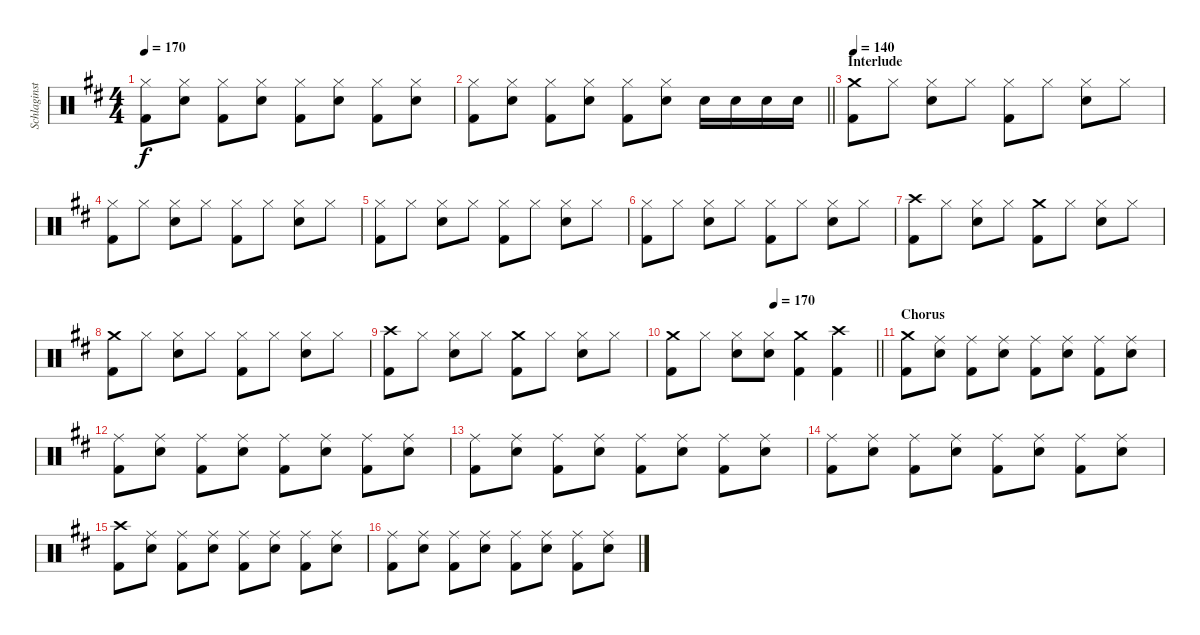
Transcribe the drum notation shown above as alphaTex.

\track ("Schlaginstrumente - Auswahl" "Schlaginst") {instrument percussion}
\staff {score}
\articulation defaults
\ts (4 4)
\tempo 170
\clef neutral
\ks d
("Hi-Hat (closed)" "Kick (hit) 2").8{dy f} ("Hi-Hat (closed)" "Snare (hit) 2").8 ("Hi-Hat (closed)" "Kick (hit) 2").8 ("Hi-Hat (closed)" "Snare (hit) 2").8 ("Hi-Hat (closed)" "Kick (hit) 2").8 ("Hi-Hat (closed)" "Snare (hit) 2").8 ("Hi-Hat (closed)" "Kick (hit) 2").8 ("Hi-Hat (closed)" "Snare (hit) 2").8 |
\barLineRight lightlight
("Hi-Hat (closed)" "Kick (hit) 2").8 ("Hi-Hat (closed)" "Snare (hit) 2").8 ("Hi-Hat (closed)" "Kick (hit) 2").8 ("Hi-Hat (closed)" "Snare (hit) 2").8 ("Hi-Hat (closed)" "Kick (hit) 2").8 ("Hi-Hat (closed)" "Snare (hit) 2").8 "Snare (hit) 2".16 "Snare (hit) 2".16 "Snare (hit) 2".16 "Snare (hit) 2".16 |
\section ("" "Interlude")
\tempo 140
("Crash medium (hit)" "Kick (hit) 2").8 "Hi-Hat (closed)".8 ("Hi-Hat (closed)" "Snare (hit) 2").8 "Hi-Hat (closed)".8 ("Hi-Hat (closed)" "Kick (hit) 2").8 "Hi-Hat (closed)".8 ("Hi-Hat (closed)" "Snare (hit) 2").8 "Hi-Hat (closed)".8 |
("Hi-Hat (closed)" "Kick (hit) 2").8 "Hi-Hat (closed)".8 ("Hi-Hat (closed)" "Snare (hit) 2").8 "Hi-Hat (closed)".8 ("Hi-Hat (closed)" "Kick (hit) 2").8 "Hi-Hat (closed)".8 ("Hi-Hat (closed)" "Snare (hit) 2").8 "Hi-Hat (closed)".8 |
("Hi-Hat (closed)" "Kick (hit) 2").8 "Hi-Hat (closed)".8 ("Hi-Hat (closed)" "Snare (hit) 2").8 "Hi-Hat (closed)".8 ("Hi-Hat (closed)" "Kick (hit) 2").8 "Hi-Hat (closed)".8 ("Hi-Hat (closed)" "Snare (hit) 2").8 "Hi-Hat (closed)".8 |
("Hi-Hat (closed)" "Kick (hit) 2").8 "Hi-Hat (closed)".8 ("Hi-Hat (closed)" "Snare (hit) 2").8 "Hi-Hat (closed)".8 ("Hi-Hat (closed)" "Kick (hit) 2").8 "Hi-Hat (closed)".8 ("Hi-Hat (closed)" "Snare (hit) 2").8 "Hi-Hat (closed)".8 |
("Crash high (hit)" "Kick (hit) 2").8 "Hi-Hat (closed)".8 ("Hi-Hat (closed)" "Snare (hit) 2").8 "Hi-Hat (closed)".8 ("Crash medium (hit)" "Kick (hit) 2").8 "Hi-Hat (closed)".8 ("Hi-Hat (closed)" "Snare (hit) 2").8 "Hi-Hat (closed)".8 |
("Crash medium (hit)" "Kick (hit) 2").8 "Hi-Hat (closed)".8 ("Hi-Hat (closed)" "Snare (hit) 2").8 "Hi-Hat (closed)".8 ("Hi-Hat (closed)" "Kick (hit) 2").8 "Hi-Hat (closed)".8 ("Hi-Hat (closed)" "Snare (hit) 2").8 "Hi-Hat (closed)".8 |
("Crash high (hit)" "Kick (hit) 2").8 "Hi-Hat (closed)".8 ("Hi-Hat (closed)" "Snare (hit) 2").8 "Hi-Hat (closed)".8 ("Crash medium (hit)" "Kick (hit) 2").8 "Hi-Hat (closed)".8 ("Hi-Hat (closed)" "Snare (hit) 2").8 "Hi-Hat (closed)".8 |
\tempo (170 0.5)
\barLineRight lightlight
("Crash medium (hit)" "Kick (hit) 2").8 "Hi-Hat (closed)".8 ("Hi-Hat (closed)" "Snare (hit) 2").8 ("Hi-Hat (closed)" "Snare (hit) 2").8 ("Crash medium (hit)" "Kick (hit) 2").4 ("Crash high (hit)" "Kick (hit) 2").4 |
\section ("" "Chorus")
("Crash medium (hit)" "Kick (hit) 2").8 ("Ride (middle)" "Snare (hit) 2").8 ("Ride (middle)" "Kick (hit) 2").8 ("Ride (middle)" "Snare (hit) 2").8 ("Ride (middle)" "Kick (hit) 2").8 ("Ride (middle)" "Snare (hit) 2").8 ("Ride (middle)" "Kick (hit) 2").8 ("Ride (middle)" "Snare (hit) 2").8 |
("Ride (middle)" "Kick (hit) 2").8 ("Ride (middle)" "Snare (hit) 2").8 ("Ride (middle)" "Kick (hit) 2").8 ("Ride (middle)" "Snare (hit) 2").8 ("Ride (middle)" "Kick (hit) 2").8 ("Ride (middle)" "Snare (hit) 2").8 ("Ride (middle)" "Kick (hit) 2").8 ("Ride (middle)" "Snare (hit) 2").8 |
("Ride (middle)" "Kick (hit) 2").8 ("Ride (middle)" "Snare (hit) 2").8 ("Ride (middle)" "Kick (hit) 2").8 ("Ride (middle)" "Snare (hit) 2").8 ("Ride (middle)" "Kick (hit) 2").8 ("Ride (middle)" "Snare (hit) 2").8 ("Ride (middle)" "Kick (hit) 2").8 ("Ride (middle)" "Snare (hit) 2").8 |
("Ride (middle)" "Kick (hit) 2").8 ("Ride (middle)" "Snare (hit) 2").8 ("Ride (middle)" "Kick (hit) 2").8 ("Ride (middle)" "Snare (hit) 2").8 ("Ride (middle)" "Kick (hit) 2").8 ("Ride (middle)" "Snare (hit) 2").8 ("Ride (middle)" "Kick (hit) 2").8 ("Ride (middle)" "Snare (hit) 2").8 |
("Crash high (hit)" "Kick (hit) 2").8 ("Ride (middle)" "Snare (hit) 2").8 ("Ride (middle)" "Kick (hit) 2").8 ("Ride (middle)" "Snare (hit) 2").8 ("Ride (middle)" "Kick (hit) 2").8 ("Ride (middle)" "Snare (hit) 2").8 ("Ride (middle)" "Kick (hit) 2").8 ("Ride (middle)" "Snare (hit) 2").8 |
("Ride (middle)" "Kick (hit) 2").8 ("Ride (middle)" "Snare (hit) 2").8 ("Ride (middle)" "Kick (hit) 2").8 ("Ride (middle)" "Snare (hit) 2").8 ("Ride (middle)" "Kick (hit) 2").8 ("Ride (middle)" "Snare (hit) 2").8 ("Ride (middle)" "Kick (hit) 2").8 ("Ride (middle)" "Snare (hit) 2").8
